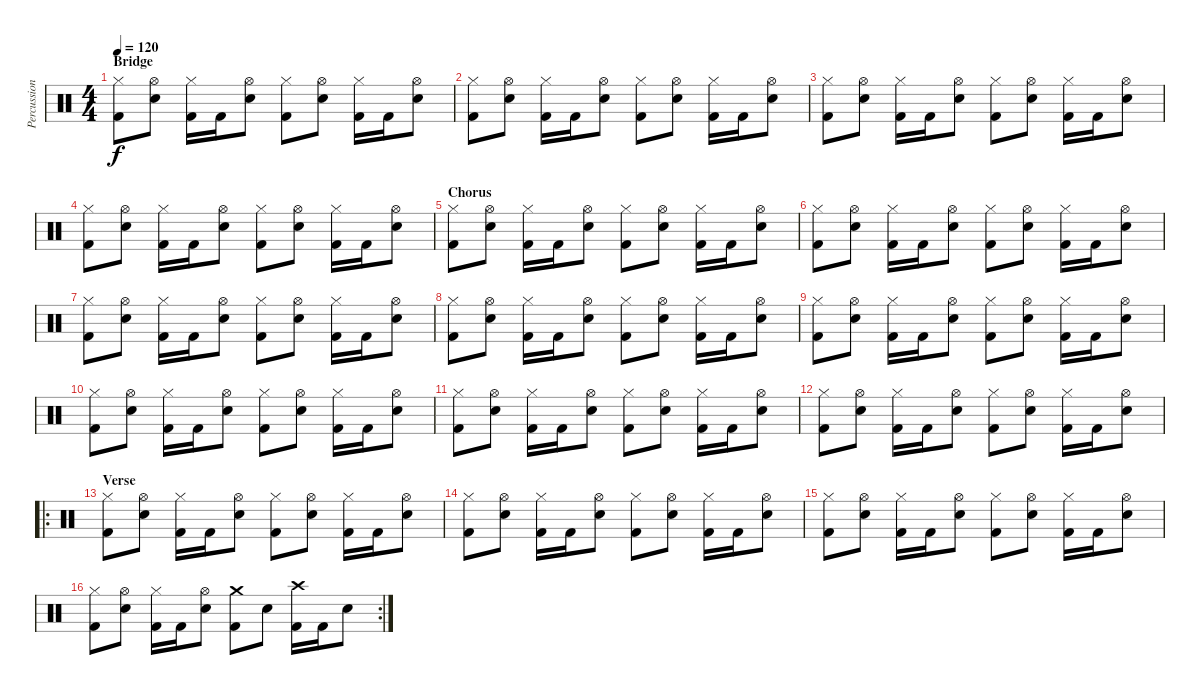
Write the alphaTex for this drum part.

\track ("Percussion" "Percussion") {instrument percussion}
\staff {score}
\articulation defaults
\ts (4 4)
\section ("" "Bridge")
\tempo 120
\clef neutral
\ks c
("Hi-Hat (closed)" "Kick (hit) 2").8{dy f} ("Hi-Hat (open)" "Snare (hit) 2").8 ("Hi-Hat (closed)" "Kick (hit) 2").16 "Kick (hit) 2".16 ("Hi-Hat (open)" "Snare (hit) 2").8 ("Hi-Hat (closed)" "Kick (hit) 2").8 ("Hi-Hat (open)" "Snare (hit) 2").8 ("Hi-Hat (closed)" "Kick (hit) 2").16 "Kick (hit) 2".16 ("Hi-Hat (open)" "Snare (hit) 2").8 |
("Hi-Hat (closed)" "Kick (hit) 2").8 ("Hi-Hat (open)" "Snare (hit) 2").8 ("Hi-Hat (closed)" "Kick (hit) 2").16 "Kick (hit) 2".16 ("Hi-Hat (open)" "Snare (hit) 2").8 ("Hi-Hat (closed)" "Kick (hit) 2").8 ("Hi-Hat (open)" "Snare (hit) 2").8 ("Hi-Hat (closed)" "Kick (hit) 2").16 "Kick (hit) 2".16 ("Hi-Hat (open)" "Snare (hit) 2").8 |
("Hi-Hat (closed)" "Kick (hit) 2").8 ("Hi-Hat (open)" "Snare (hit) 2").8 ("Hi-Hat (closed)" "Kick (hit) 2").16 "Kick (hit) 2".16 ("Hi-Hat (open)" "Snare (hit) 2").8 ("Hi-Hat (closed)" "Kick (hit) 2").8 ("Hi-Hat (open)" "Snare (hit) 2").8 ("Hi-Hat (closed)" "Kick (hit) 2").16 "Kick (hit) 2".16 ("Hi-Hat (open)" "Snare (hit) 2").8 |
("Hi-Hat (closed)" "Kick (hit) 2").8 ("Hi-Hat (open)" "Snare (hit) 2").8 ("Hi-Hat (closed)" "Kick (hit) 2").16 "Kick (hit) 2".16 ("Hi-Hat (open)" "Snare (hit) 2").8 ("Hi-Hat (closed)" "Kick (hit) 2").8 ("Hi-Hat (open)" "Snare (hit) 2").8 ("Hi-Hat (closed)" "Kick (hit) 2").16 "Kick (hit) 2".16 ("Hi-Hat (open)" "Snare (hit) 2").8 |
\section ("" "Chorus")
("Hi-Hat (closed)" "Kick (hit) 2").8 ("Hi-Hat (open)" "Snare (hit) 2").8 ("Hi-Hat (closed)" "Kick (hit) 2").16 "Kick (hit) 2".16 ("Hi-Hat (open)" "Snare (hit) 2").8 ("Hi-Hat (closed)" "Kick (hit) 2").8 ("Hi-Hat (open)" "Snare (hit) 2").8 ("Hi-Hat (closed)" "Kick (hit) 2").16 "Kick (hit) 2".16 ("Hi-Hat (open)" "Snare (hit) 2").8 |
("Hi-Hat (closed)" "Kick (hit) 2").8 ("Hi-Hat (open)" "Snare (hit) 2").8 ("Hi-Hat (closed)" "Kick (hit) 2").16 "Kick (hit) 2".16 ("Hi-Hat (open)" "Snare (hit) 2").8 ("Hi-Hat (closed)" "Kick (hit) 2").8 ("Hi-Hat (open)" "Snare (hit) 2").8 ("Hi-Hat (closed)" "Kick (hit) 2").16 "Kick (hit) 2".16 ("Hi-Hat (open)" "Snare (hit) 2").8 |
("Hi-Hat (closed)" "Kick (hit) 2").8 ("Hi-Hat (open)" "Snare (hit) 2").8 ("Hi-Hat (closed)" "Kick (hit) 2").16 "Kick (hit) 2".16 ("Hi-Hat (open)" "Snare (hit) 2").8 ("Hi-Hat (closed)" "Kick (hit) 2").8 ("Hi-Hat (open)" "Snare (hit) 2").8 ("Hi-Hat (closed)" "Kick (hit) 2").16 "Kick (hit) 2".16 ("Hi-Hat (open)" "Snare (hit) 2").8 |
("Hi-Hat (closed)" "Kick (hit) 2").8 ("Hi-Hat (open)" "Snare (hit) 2").8 ("Hi-Hat (closed)" "Kick (hit) 2").16 "Kick (hit) 2".16 ("Hi-Hat (open)" "Snare (hit) 2").8 ("Hi-Hat (closed)" "Kick (hit) 2").8 ("Hi-Hat (open)" "Snare (hit) 2").8 ("Hi-Hat (closed)" "Kick (hit) 2").16 "Kick (hit) 2".16 ("Hi-Hat (open)" "Snare (hit) 2").8 |
("Hi-Hat (closed)" "Kick (hit) 2").8 ("Hi-Hat (open)" "Snare (hit) 2").8 ("Hi-Hat (closed)" "Kick (hit) 2").16 "Kick (hit) 2".16 ("Hi-Hat (open)" "Snare (hit) 2").8 ("Hi-Hat (closed)" "Kick (hit) 2").8 ("Hi-Hat (open)" "Snare (hit) 2").8 ("Hi-Hat (closed)" "Kick (hit) 2").16 "Kick (hit) 2".16 ("Hi-Hat (open)" "Snare (hit) 2").8 |
("Hi-Hat (closed)" "Kick (hit) 2").8 ("Hi-Hat (open)" "Snare (hit) 2").8 ("Hi-Hat (closed)" "Kick (hit) 2").16 "Kick (hit) 2".16 ("Hi-Hat (open)" "Snare (hit) 2").8 ("Hi-Hat (closed)" "Kick (hit) 2").8 ("Hi-Hat (open)" "Snare (hit) 2").8 ("Hi-Hat (closed)" "Kick (hit) 2").16 "Kick (hit) 2".16 ("Hi-Hat (open)" "Snare (hit) 2").8 |
("Hi-Hat (closed)" "Kick (hit) 2").8 ("Hi-Hat (open)" "Snare (hit) 2").8 ("Hi-Hat (closed)" "Kick (hit) 2").16 "Kick (hit) 2".16 ("Hi-Hat (open)" "Snare (hit) 2").8 ("Hi-Hat (closed)" "Kick (hit) 2").8 ("Hi-Hat (open)" "Snare (hit) 2").8 ("Hi-Hat (closed)" "Kick (hit) 2").16 "Kick (hit) 2".16 ("Hi-Hat (open)" "Snare (hit) 2").8 |
("Hi-Hat (closed)" "Kick (hit) 2").8 ("Hi-Hat (open)" "Snare (hit) 2").8 ("Hi-Hat (closed)" "Kick (hit) 2").16 "Kick (hit) 2".16 ("Hi-Hat (open)" "Snare (hit) 2").8 ("Hi-Hat (closed)" "Kick (hit) 2").8 ("Hi-Hat (open)" "Snare (hit) 2").8 ("Hi-Hat (closed)" "Kick (hit) 2").16 "Kick (hit) 2".16 ("Hi-Hat (open)" "Snare (hit) 2").8 |
\ro
\section ("" "Verse")
("Hi-Hat (closed)" "Kick (hit) 2").8 ("Hi-Hat (open)" "Snare (hit) 2").8 ("Hi-Hat (closed)" "Kick (hit) 2").16 "Kick (hit) 2".16 ("Hi-Hat (open)" "Snare (hit) 2").8 ("Hi-Hat (closed)" "Kick (hit) 2").8 ("Hi-Hat (open)" "Snare (hit) 2").8 ("Hi-Hat (closed)" "Kick (hit) 2").16 "Kick (hit) 2".16 ("Hi-Hat (open)" "Snare (hit) 2").8 |
("Hi-Hat (closed)" "Kick (hit) 2").8 ("Hi-Hat (open)" "Snare (hit) 2").8 ("Hi-Hat (closed)" "Kick (hit) 2").16 "Kick (hit) 2".16 ("Hi-Hat (open)" "Snare (hit) 2").8 ("Hi-Hat (closed)" "Kick (hit) 2").8 ("Hi-Hat (open)" "Snare (hit) 2").8 ("Hi-Hat (closed)" "Kick (hit) 2").16 "Kick (hit) 2".16 ("Hi-Hat (open)" "Snare (hit) 2").8 |
("Hi-Hat (closed)" "Kick (hit) 2").8 ("Hi-Hat (open)" "Snare (hit) 2").8 ("Hi-Hat (closed)" "Kick (hit) 2").16 "Kick (hit) 2".16 ("Hi-Hat (open)" "Snare (hit) 2").8 ("Hi-Hat (closed)" "Kick (hit) 2").8 ("Hi-Hat (open)" "Snare (hit) 2").8 ("Hi-Hat (closed)" "Kick (hit) 2").16 "Kick (hit) 2".16 ("Hi-Hat (open)" "Snare (hit) 2").8 |
\rc 2
("Hi-Hat (closed)" "Kick (hit) 2").8 ("Hi-Hat (open)" "Snare (hit) 2").8 ("Hi-Hat (closed)" "Kick (hit) 2").16 "Kick (hit) 2".16 ("Hi-Hat (open)" "Snare (hit) 2").8 ("Crash medium (hit)" "Kick (hit) 2").8 "Snare (hit) 2".8 ("Crash high (hit)" "Kick (hit) 2").16 "Kick (hit) 2".16 "Snare (hit) 2".8
